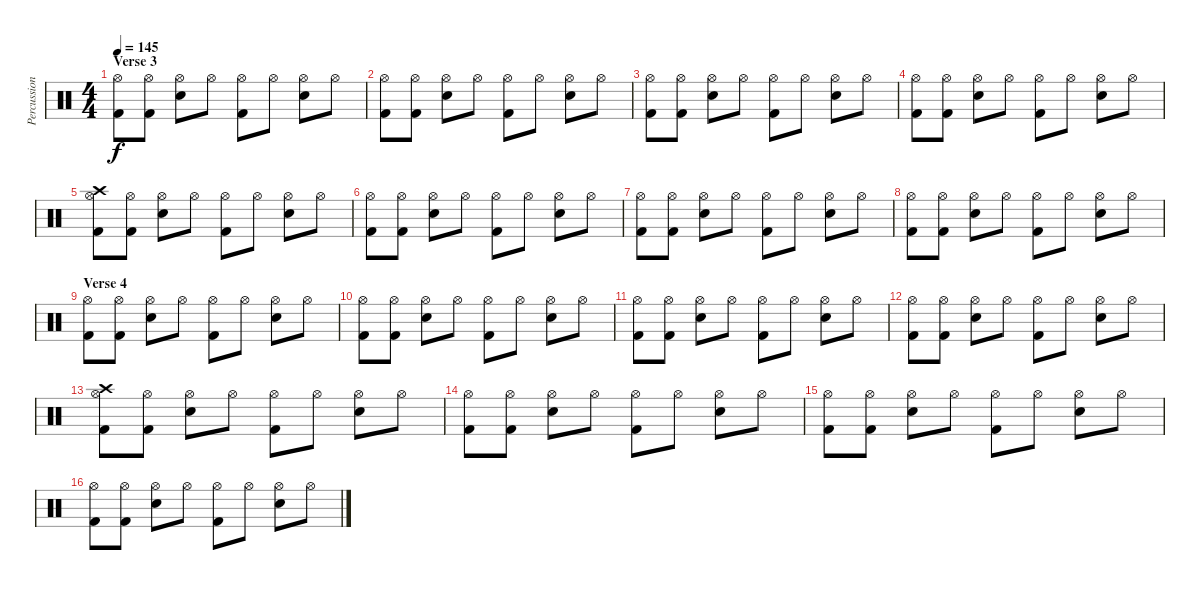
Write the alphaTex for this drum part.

\track ("Percussion" "Percussion") {instrument percussion}
\staff {score}
\articulation defaults
\ts (4 4)
\section ("" "Verse 3")
\tempo 145
\clef neutral
\ks c
("Hi-Hat (open)" "Kick (hit) 2").8{dy f} ("Hi-Hat (open)" "Kick (hit) 2").8 ("Hi-Hat (open)" "Snare (hit) 2").8 "Hi-Hat (open)".8 ("Hi-Hat (open)" "Kick (hit) 2").8 "Hi-Hat (open)".8 ("Hi-Hat (open)" "Snare (hit) 2").8 "Hi-Hat (open)".8 |
("Hi-Hat (open)" "Kick (hit) 2").8 ("Hi-Hat (open)" "Kick (hit) 2").8 ("Hi-Hat (open)" "Snare (hit) 2").8 "Hi-Hat (open)".8 ("Hi-Hat (open)" "Kick (hit) 2").8 "Hi-Hat (open)".8 ("Hi-Hat (open)" "Snare (hit) 2").8 "Hi-Hat (open)".8 |
("Hi-Hat (open)" "Kick (hit) 2").8 ("Hi-Hat (open)" "Kick (hit) 2").8 ("Hi-Hat (open)" "Snare (hit) 2").8 "Hi-Hat (open)".8 ("Hi-Hat (open)" "Kick (hit) 2").8 "Hi-Hat (open)".8 ("Hi-Hat (open)" "Snare (hit) 2").8 "Hi-Hat (open)".8 |
("Hi-Hat (open)" "Kick (hit) 2").8 ("Hi-Hat (open)" "Kick (hit) 2").8 ("Hi-Hat (open)" "Snare (hit) 2").8 "Hi-Hat (open)".8 ("Hi-Hat (open)" "Kick (hit) 2").8 "Hi-Hat (open)".8 ("Hi-Hat (open)" "Snare (hit) 2").8 "Hi-Hat (open)".8 |
("Hi-Hat (open)" "Kick (hit) 2" "Crash high (hit)").8 ("Hi-Hat (open)" "Kick (hit) 2").8 ("Hi-Hat (open)" "Snare (hit) 2").8 "Hi-Hat (open)".8 ("Hi-Hat (open)" "Kick (hit) 2").8 "Hi-Hat (open)".8 ("Hi-Hat (open)" "Snare (hit) 2").8 "Hi-Hat (open)".8 |
("Hi-Hat (open)" "Kick (hit) 2").8 ("Hi-Hat (open)" "Kick (hit) 2").8 ("Hi-Hat (open)" "Snare (hit) 2").8 "Hi-Hat (open)".8 ("Hi-Hat (open)" "Kick (hit) 2").8 "Hi-Hat (open)".8 ("Hi-Hat (open)" "Snare (hit) 2").8 "Hi-Hat (open)".8 |
("Hi-Hat (open)" "Kick (hit) 2").8 ("Hi-Hat (open)" "Kick (hit) 2").8 ("Hi-Hat (open)" "Snare (hit) 2").8 "Hi-Hat (open)".8 ("Hi-Hat (open)" "Kick (hit) 2").8 "Hi-Hat (open)".8 ("Hi-Hat (open)" "Snare (hit) 2").8 "Hi-Hat (open)".8 |
("Hi-Hat (open)" "Kick (hit) 2").8 ("Hi-Hat (open)" "Kick (hit) 2").8 ("Hi-Hat (open)" "Snare (hit) 2").8 "Hi-Hat (open)".8 ("Hi-Hat (open)" "Kick (hit) 2").8 "Hi-Hat (open)".8 ("Hi-Hat (open)" "Snare (hit) 2").8 "Hi-Hat (open)".8 |
\section ("" "Verse 4")
("Hi-Hat (open)" "Kick (hit) 2").8 ("Hi-Hat (open)" "Kick (hit) 2").8 ("Hi-Hat (open)" "Snare (hit) 2").8 "Hi-Hat (open)".8 ("Hi-Hat (open)" "Kick (hit) 2").8 "Hi-Hat (open)".8 ("Hi-Hat (open)" "Snare (hit) 2").8 "Hi-Hat (open)".8 |
("Hi-Hat (open)" "Kick (hit) 2").8 ("Hi-Hat (open)" "Kick (hit) 2").8 ("Hi-Hat (open)" "Snare (hit) 2").8 "Hi-Hat (open)".8 ("Hi-Hat (open)" "Kick (hit) 2").8 "Hi-Hat (open)".8 ("Hi-Hat (open)" "Snare (hit) 2").8 "Hi-Hat (open)".8 |
("Hi-Hat (open)" "Kick (hit) 2").8 ("Hi-Hat (open)" "Kick (hit) 2").8 ("Hi-Hat (open)" "Snare (hit) 2").8 "Hi-Hat (open)".8 ("Hi-Hat (open)" "Kick (hit) 2").8 "Hi-Hat (open)".8 ("Hi-Hat (open)" "Snare (hit) 2").8 "Hi-Hat (open)".8 |
("Hi-Hat (open)" "Kick (hit) 2").8 ("Hi-Hat (open)" "Kick (hit) 2").8 ("Hi-Hat (open)" "Snare (hit) 2").8 "Hi-Hat (open)".8 ("Hi-Hat (open)" "Kick (hit) 2").8 "Hi-Hat (open)".8 ("Hi-Hat (open)" "Snare (hit) 2").8 "Hi-Hat (open)".8 |
("Hi-Hat (open)" "Kick (hit) 2" "Crash high (hit)").8 ("Hi-Hat (open)" "Kick (hit) 2").8 ("Hi-Hat (open)" "Snare (hit) 2").8 "Hi-Hat (open)".8 ("Hi-Hat (open)" "Kick (hit) 2").8 "Hi-Hat (open)".8 ("Hi-Hat (open)" "Snare (hit) 2").8 "Hi-Hat (open)".8 |
("Hi-Hat (open)" "Kick (hit) 2").8 ("Hi-Hat (open)" "Kick (hit) 2").8 ("Hi-Hat (open)" "Snare (hit) 2").8 "Hi-Hat (open)".8 ("Hi-Hat (open)" "Kick (hit) 2").8 "Hi-Hat (open)".8 ("Hi-Hat (open)" "Snare (hit) 2").8 "Hi-Hat (open)".8 |
("Hi-Hat (open)" "Kick (hit) 2").8 ("Hi-Hat (open)" "Kick (hit) 2").8 ("Hi-Hat (open)" "Snare (hit) 2").8 "Hi-Hat (open)".8 ("Hi-Hat (open)" "Kick (hit) 2").8 "Hi-Hat (open)".8 ("Hi-Hat (open)" "Snare (hit) 2").8 "Hi-Hat (open)".8 |
("Hi-Hat (open)" "Kick (hit) 2").8 ("Hi-Hat (open)" "Kick (hit) 2").8 ("Hi-Hat (open)" "Snare (hit) 2").8 "Hi-Hat (open)".8 ("Hi-Hat (open)" "Kick (hit) 2").8 "Hi-Hat (open)".8 ("Hi-Hat (open)" "Snare (hit) 2").8 "Hi-Hat (open)".8
